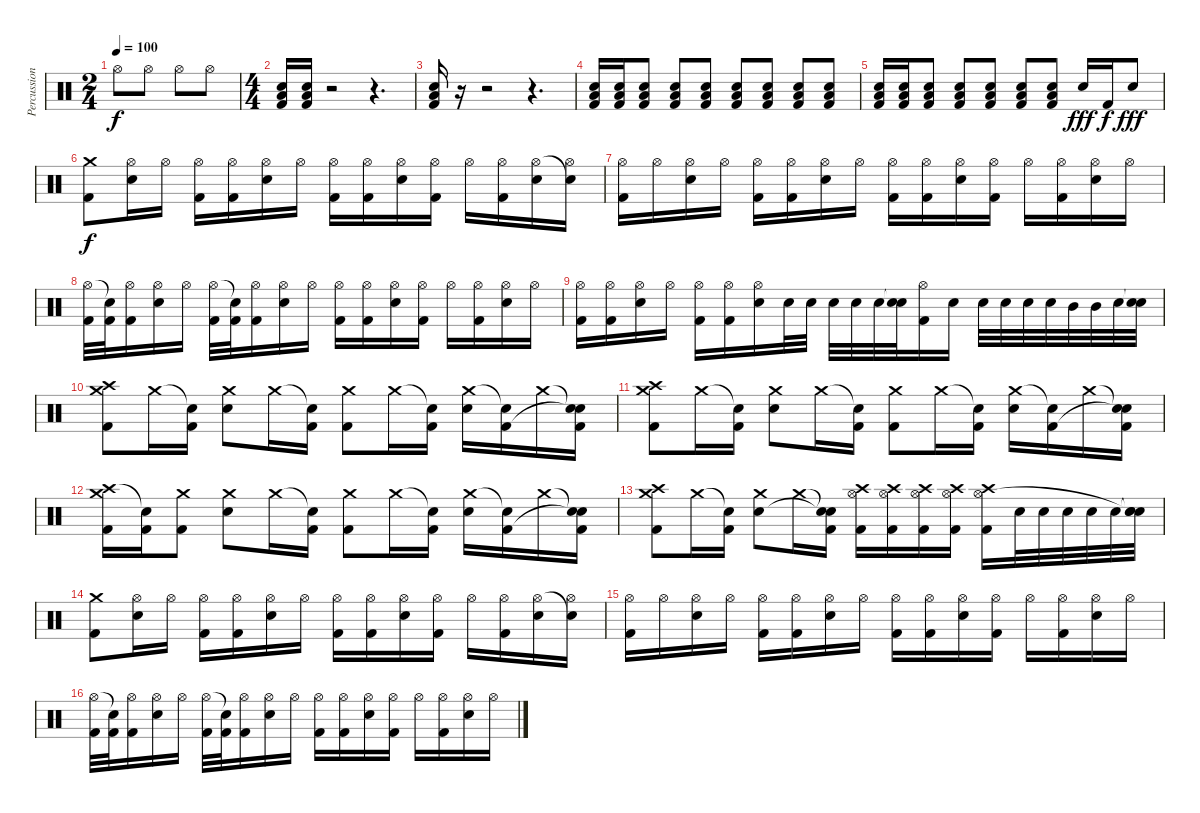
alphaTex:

\track ("Percussion" "Percussion") {instrument percussion}
\staff {score}
\articulation defaults
\ts (2 4)
\tempo 100
\clef neutral
\ks c "Hi-Hat (open)".8{dy f} "Hi-Hat (open)".8 "Hi-Hat (open)".8 "Hi-Hat (open)".8
|
\ts (4 4)
("Electric Snare (hit)" "Low Floor Tom (hit)" "Kick (hit) 2").16 ("Electric Snare (hit)" "Low Floor Tom (hit)" "Kick (hit) 2").16 r.2 r.4{d} |
("Electric Snare (hit)" "Low Floor Tom (hit)" "Kick (hit) 2").16 r.16 r.2 r.4{d} |
("Electric Snare (hit)" "Low Floor Tom (hit)" "Kick (hit) 2").16 ("Electric Snare (hit)" "Low Floor Tom (hit)" "Kick (hit) 2").16 ("Electric Snare (hit)" "Low Floor Tom (hit)" "Kick (hit) 2").8 ("Electric Snare (hit)" "Low Floor Tom (hit)" "Kick (hit) 2").8 ("Electric Snare (hit)" "Low Floor Tom (hit)" "Kick (hit) 2").8 ("Electric Snare (hit)" "Low Floor Tom (hit)" "Kick (hit) 2").8 ("Electric Snare (hit)" "Low Floor Tom (hit)" "Kick (hit) 2").8 ("Electric Snare (hit)" "Low Floor Tom (hit)" "Kick (hit) 2").8 ("Electric Snare (hit)" "Low Floor Tom (hit)" "Kick (hit) 2").8 |
("Electric Snare (hit)" "Low Floor Tom (hit)" "Kick (hit) 2").16 ("Electric Snare (hit)" "Low Floor Tom (hit)" "Kick (hit) 2").16 ("Electric Snare (hit)" "Low Floor Tom (hit)" "Kick (hit) 2").8 ("Electric Snare (hit)" "Low Floor Tom (hit)" "Kick (hit) 2").8 ("Electric Snare (hit)" "Low Floor Tom (hit)" "Kick (hit) 2").8 ("Electric Snare (hit)" "Low Floor Tom (hit)" "Kick (hit) 2").8 ("Electric Snare (hit)" "Low Floor Tom (hit)" "Kick (hit) 2").8 "Electric Snare (hit)".16{dy fff} "Kick (hit) 2".16{dy f} "Electric Snare (hit)".8{dy fff} |
("Crash medium (hit)" "Kick (hit) 2").8{dy f} ("Hi-Hat (open)" "Electric Snare (hit)").16 "Hi-Hat (open)".16 ("Hi-Hat (open)" "Kick (hit) 2").16 ("Hi-Hat (open)" "Kick (hit) 2").16 ("Hi-Hat (open)" "Electric Snare (hit)").16 "Hi-Hat (open)".16 ("Hi-Hat (open)" "Kick (hit) 2").16 ("Hi-Hat (open)" "Kick (hit) 2").16 ("Hi-Hat (open)" "Electric Snare (hit)").16 ("Hi-Hat (open)" "Kick (hit) 2").16 "Hi-Hat (open)".16 ("Hi-Hat (open)" "Kick (hit) 2").16 ("Hi-Hat (open)" "Electric Snare (hit)").16 ("Snare (hit)"{t} "Hi-Hat (open)").16 |
("Hi-Hat (open)" "Kick (hit) 2").16 "Hi-Hat (open)".16 ("Hi-Hat (open)" "Electric Snare (hit)").16 "Hi-Hat (open)".16 ("Hi-Hat (open)" "Kick (hit) 2").16 ("Hi-Hat (open)" "Kick (hit) 2").16 ("Hi-Hat (open)" "Electric Snare (hit)").16 "Hi-Hat (open)".16 ("Hi-Hat (open)" "Kick (hit) 2").16 ("Hi-Hat (open)" "Kick (hit) 2").16 ("Hi-Hat (open)" "Electric Snare (hit)").16 ("Hi-Hat (open)" "Kick (hit) 2").16 "Hi-Hat (open)".16 ("Hi-Hat (open)" "Kick (hit) 2").16 ("Hi-Hat (open)" "Electric Snare (hit)").16 "Hi-Hat (open)".16 |
("Hi-Hat (open)" "Kick (hit) 2").32 ("Snare (hit)"{t} "Kick (hit) 2").32 ("Hi-Hat (open)" "Kick (hit) 2").16 ("Hi-Hat (open)" "Electric Snare (hit)").16 "Hi-Hat (open)".16 ("Hi-Hat (open)" "Kick (hit) 2").32 ("Snare (hit)"{t} "Kick (hit) 2").32 ("Hi-Hat (open)" "Kick (hit) 2").16 ("Hi-Hat (open)" "Electric Snare (hit)").16 "Hi-Hat (open)".16 ("Hi-Hat (open)" "Kick (hit) 2").16 ("Hi-Hat (open)" "Kick (hit) 2").16 ("Hi-Hat (open)" "Electric Snare (hit)").16 ("Hi-Hat (open)" "Kick (hit) 2").16 "Hi-Hat (open)".16 ("Hi-Hat (open)" "Kick (hit) 2").16 ("Hi-Hat (open)" "Electric Snare (hit)").16 "Hi-Hat (open)".16 |
("Hi-Hat (open)" "Kick (hit) 2").16 ("Hi-Hat (open)" "Kick (hit) 2").16 ("Hi-Hat (open)" "Electric Snare (hit)").16 "Hi-Hat (open)".16 ("Hi-Hat (open)" "Kick (hit) 2").16 ("Hi-Hat (open)" "Kick (hit) 2").16 ("Hi-Hat (open)" "Electric Snare (hit)").16 "Electric Snare (hit)".32 "Electric Snare (hit)".32 "Electric Snare (hit)".32 "Electric Snare (hit)".32 "Electric Snare (hit)".32 ("Snare (hit)"{t} "Electric Snare (hit)").32 ("Hi-Hat (open)" "Kick (hit) 2").16 "Electric Snare (hit)".16 "Electric Snare (hit)".32 "Electric Snare (hit)".32 "Electric Snare (hit)".32 "Electric Snare (hit)".32 "Mid Tom (hit)".32 "Mid Tom (hit)".32 "Electric Snare (hit)".32 ("Snare (hit)"{t} "Electric Snare (hit)").32 |
("Crash high (hit)" "Crash medium (hit)" "Kick (hit) 2").8 "Crash medium (hit)".16 ("Snare (hit)"{t} "Kick (hit) 2").16 ("Crash medium (hit)" "Electric Snare (hit)").8 "Crash medium (hit)".16 ("Snare (hit)"{t} "Kick (hit) 2").16 ("Crash medium (hit)" "Kick (hit) 2").8 "Crash medium (hit)".16 ("Snare (hit)"{t} "Kick (hit) 2").16 ("Crash medium (hit)" "Electric Snare (hit)").16 ("Snare (hit)"{t} "Kick (hit) 2").16 "Crash medium (hit)".16 ("Snare (hit)"{t} "Snare (hit)"{t} "Kick (hit) 2").16 |
("Crash high (hit)" "Crash medium (hit)" "Kick (hit) 2").8 "Crash medium (hit)".16 ("Snare (hit)"{t} "Kick (hit) 2").16 ("Crash medium (hit)" "Electric Snare (hit)").8 "Crash medium (hit)".16 ("Snare (hit)"{t} "Kick (hit) 2").16 ("Crash medium (hit)" "Kick (hit) 2").8 "Crash medium (hit)".16 ("Snare (hit)"{t} "Kick (hit) 2").16 ("Crash medium (hit)" "Electric Snare (hit)").16 ("Snare (hit)"{t} "Kick (hit) 2").16 "Crash medium (hit)".16 ("Snare (hit)"{t} "Snare (hit)"{t} "Kick (hit) 2").16 |
("Crash high (hit)" "Crash medium (hit)" "Kick (hit) 2").16 ("Snare (hit)"{t} "Kick (hit) 2").16 ("Crash medium (hit)" "Kick (hit) 2").8 ("Crash medium (hit)" "Electric Snare (hit)").8 "Crash medium (hit)".16 ("Snare (hit)"{t} "Kick (hit) 2").16 ("Crash medium (hit)" "Kick (hit) 2").8 "Crash medium (hit)".16 ("Snare (hit)"{t} "Kick (hit) 2").16 ("Crash medium (hit)" "Electric Snare (hit)").16 ("Snare (hit)"{t} "Kick (hit) 2").16 "Crash medium (hit)".16 ("Snare (hit)"{t} "Snare (hit)"{t} "Kick (hit) 2").16 |
("Crash high (hit)" "Crash medium (hit)" "Kick (hit) 2").8 "Crash medium (hit)".16 ("Snare (hit)"{t} "Kick (hit) 2").16 ("Crash medium (hit)" "Electric Snare (hit)").8 "Crash medium (hit)".16 ("Snare (hit)"{t} "Snare (hit)"{t} "Kick (hit) 2").16 ("Crash high (hit)" "Hi-Hat (open)" "Kick (hit) 2").16 ("Crash high (hit)" "Hi-Hat (open)" "Kick (hit) 2").16 ("Crash high (hit)" "Hi-Hat (open)" "Kick (hit) 2").16 ("Crash high (hit)" "Hi-Hat (open)" "Kick (hit) 2").16 ("Crash high (hit)" "Hi-Hat (open)" "Kick (hit) 2").16 "Electric Snare (hit)".32 "Electric Snare (hit)".32 "Electric Snare (hit)".32 "Electric Snare (hit)".32 "Electric Snare (hit)".32 ("Snare (hit)"{t} "Snare (hit)"{t} "Electric Snare (hit)").32 |
("Crash medium (hit)" "Kick (hit) 2").8 ("Hi-Hat (open)" "Electric Snare (hit)").16 "Hi-Hat (open)".16 ("Hi-Hat (open)" "Kick (hit) 2").16 ("Hi-Hat (open)" "Kick (hit) 2").16 ("Hi-Hat (open)" "Electric Snare (hit)").16 "Hi-Hat (open)".16 ("Hi-Hat (open)" "Kick (hit) 2").16 ("Hi-Hat (open)" "Kick (hit) 2").16 ("Hi-Hat (open)" "Electric Snare (hit)").16 ("Hi-Hat (open)" "Kick (hit) 2").16 "Hi-Hat (open)".16 ("Hi-Hat (open)" "Kick (hit) 2").16 ("Hi-Hat (open)" "Electric Snare (hit)").16 ("Snare (hit)"{t} "Hi-Hat (open)").16 |
("Hi-Hat (open)" "Kick (hit) 2").16 "Hi-Hat (open)".16 ("Hi-Hat (open)" "Electric Snare (hit)").16 "Hi-Hat (open)".16 ("Hi-Hat (open)" "Kick (hit) 2").16 ("Hi-Hat (open)" "Kick (hit) 2").16 ("Hi-Hat (open)" "Electric Snare (hit)").16 "Hi-Hat (open)".16 ("Hi-Hat (open)" "Kick (hit) 2").16 ("Hi-Hat (open)" "Kick (hit) 2").16 ("Hi-Hat (open)" "Electric Snare (hit)").16 ("Hi-Hat (open)" "Kick (hit) 2").16 "Hi-Hat (open)".16 ("Hi-Hat (open)" "Kick (hit) 2").16 ("Hi-Hat (open)" "Electric Snare (hit)").16 "Hi-Hat (open)".16 |
("Hi-Hat (open)" "Kick (hit) 2").32 ("Snare (hit)"{t} "Kick (hit) 2").32 ("Hi-Hat (open)" "Kick (hit) 2").16 ("Hi-Hat (open)" "Electric Snare (hit)").16 "Hi-Hat (open)".16 ("Hi-Hat (open)" "Kick (hit) 2").32 ("Snare (hit)"{t} "Kick (hit) 2").32 ("Hi-Hat (open)" "Kick (hit) 2").16 ("Hi-Hat (open)" "Electric Snare (hit)").16 "Hi-Hat (open)".16 ("Hi-Hat (open)" "Kick (hit) 2").16 ("Hi-Hat (open)" "Kick (hit) 2").16 ("Hi-Hat (open)" "Electric Snare (hit)").16 ("Hi-Hat (open)" "Kick (hit) 2").16 "Hi-Hat (open)".16 ("Hi-Hat (open)" "Kick (hit) 2").16 ("Hi-Hat (open)" "Electric Snare (hit)").16 "Hi-Hat (open)".16
